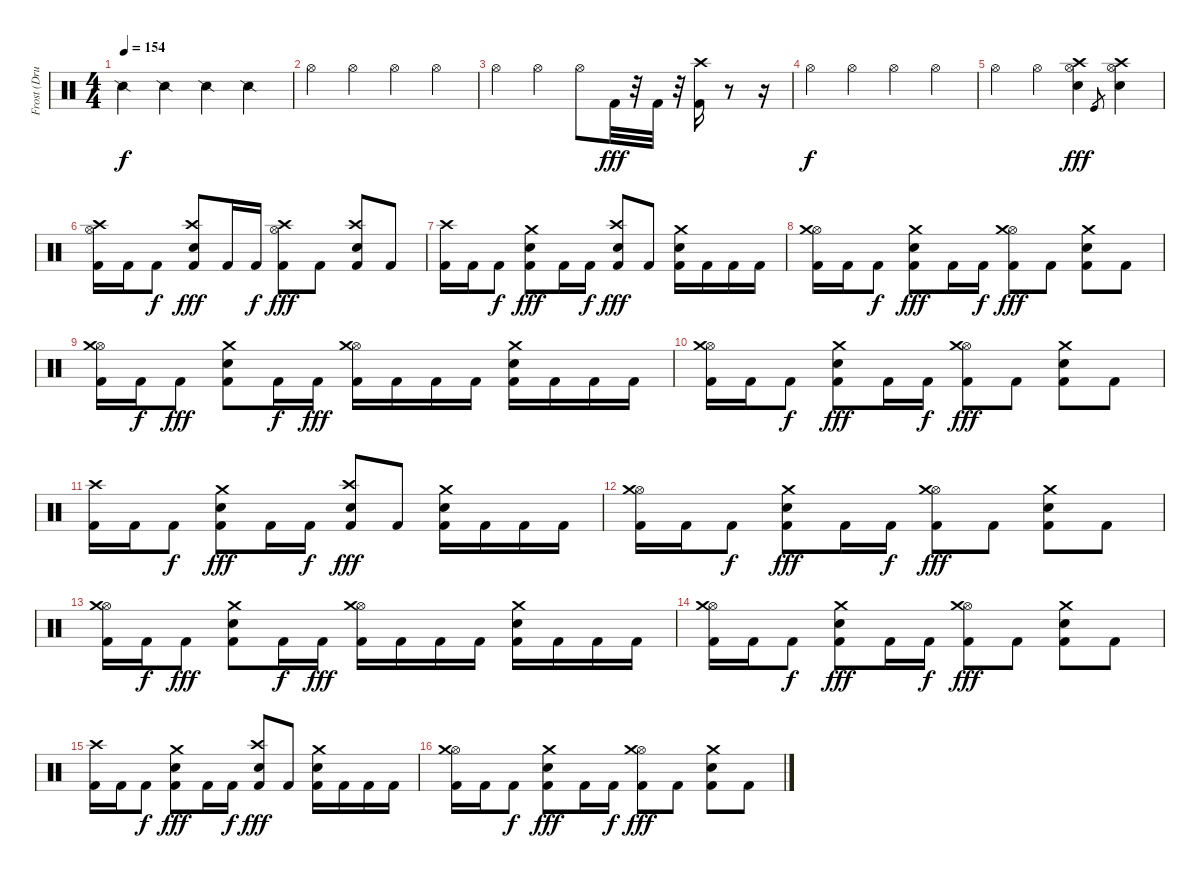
\track ("Frost (Drums)" "Frost (Dru") {instrument percussion}
\staff {score}
\articulation defaults
\ts (4 4)
\tempo 154
\clef neutral
\ks c "Snare (side stick) 2".4{dy f} "Snare (side stick) 2".4 "Snare (side stick) 2".4 "Snare (side stick) 2".4
|
"Hi-Hat (open)".4 "Hi-Hat (open)".4 "Hi-Hat (open)".4 "Hi-Hat (open)".4 |
"Hi-Hat (open)".4 "Hi-Hat (open)".4 "Hi-Hat (open)".8 "Kick (hit) 2".32{dy fff} r.32 "Kick (hit) 2".32 r.32 ("Crash high (hit)" "Kick (hit) 2").16 r.8 r.16 |
"Hi-Hat (open)".4{dy f} "Hi-Hat (open)".4 "Hi-Hat (open)".4 "Hi-Hat (open)".4 |
"Hi-Hat (open)".4 "Hi-Hat (open)".4 ("Crash high (hit)" "Snare (hit) 2" "Hi-Hat (open)").4{dy fff} "Kick (hit)"{h}.8{gr} ("Crash high (hit)" "Snare (hit) 2" "Hi-Hat (open)").4 |
("Kick (hit) 2" "Hi-Hat (open)" "Crash high (hit)").16 "Kick (hit) 2".16 "Kick (hit) 2".8{dy f} ("Kick (hit) 2" "Snare (hit) 2" "Crash high (hit)").8{dy fff} "Kick (hit) 2".16 "Kick (hit) 2".16{dy f} ("Kick (hit) 2" "Hi-Hat (open)" "Crash high (hit)").8{dy fff} "Kick (hit) 2".8 ("Kick (hit) 2" "Snare (hit) 2" "Crash high (hit)").8 "Kick (hit) 2".8 |
("Kick (hit) 2" "Crash high (hit)").16 "Kick (hit) 2".16 "Kick (hit) 2".8{dy f} ("Kick (hit) 2" "Snare (hit) 2" "Crash medium (hit)").8{dy fff} "Kick (hit) 2".16 "Kick (hit) 2".16{dy f} ("Kick (hit) 2" "Snare (hit) 2" "Crash high (hit)").8{dy fff} "Kick (hit) 2".8 ("Kick (hit) 2" "Snare (hit) 2" "Crash medium (hit)").16 "Kick (hit) 2".16 "Kick (hit) 2".16 "Kick (hit) 2".16 |
("Kick (hit) 2" "Hi-Hat (open)" "Crash medium (hit)").16 "Kick (hit) 2".16 "Kick (hit) 2".8{dy f} ("Kick (hit) 2" "Snare (hit) 2" "Crash medium (hit)").8{dy fff} "Kick (hit) 2".16 "Kick (hit) 2".16{dy f} ("Kick (hit) 2" "Hi-Hat (open)" "Crash medium (hit)").8{dy fff} "Kick (hit) 2".8 ("Kick (hit) 2" "Snare (hit) 2" "Crash medium (hit)").8 "Kick (hit) 2".8 |
("Kick (hit) 2" "Hi-Hat (open)" "Crash medium (hit)").16 "Kick (hit) 2".16{dy f} "Kick (hit) 2".8{dy fff} ("Kick (hit) 2" "Snare (hit) 2" "Crash medium (hit)").8 "Kick (hit) 2".16{dy f} "Kick (hit) 2".16{dy fff} ("Kick (hit) 2" "Hi-Hat (open)" "Crash medium (hit)").16 "Kick (hit) 2".16 "Kick (hit) 2".16 "Kick (hit) 2".16 ("Kick (hit) 2" "Snare (hit) 2" "Crash medium (hit)").16 "Kick (hit) 2".16 "Kick (hit) 2".16 "Kick (hit) 2".16 |
("Kick (hit) 2" "Hi-Hat (open)" "Crash medium (hit)").16 "Kick (hit) 2".16 "Kick (hit) 2".8{dy f} ("Kick (hit) 2" "Snare (hit) 2" "Crash medium (hit)").8{dy fff} "Kick (hit) 2".16 "Kick (hit) 2".16{dy f} ("Kick (hit) 2" "Hi-Hat (open)" "Crash medium (hit)").8{dy fff} "Kick (hit) 2".8 ("Kick (hit) 2" "Snare (hit) 2" "Crash medium (hit)").8 "Kick (hit) 2".8 |
("Kick (hit) 2" "Crash high (hit)").16 "Kick (hit) 2".16 "Kick (hit) 2".8{dy f} ("Kick (hit) 2" "Snare (hit) 2" "Crash medium (hit)").8{dy fff} "Kick (hit) 2".16 "Kick (hit) 2".16{dy f} ("Kick (hit) 2" "Snare (hit) 2" "Crash high (hit)").8{dy fff} "Kick (hit) 2".8 ("Kick (hit) 2" "Snare (hit) 2" "Crash medium (hit)").16 "Kick (hit) 2".16 "Kick (hit) 2".16 "Kick (hit) 2".16 |
("Kick (hit) 2" "Hi-Hat (open)" "Crash medium (hit)").16 "Kick (hit) 2".16 "Kick (hit) 2".8{dy f} ("Kick (hit) 2" "Snare (hit) 2" "Crash medium (hit)").8{dy fff} "Kick (hit) 2".16 "Kick (hit) 2".16{dy f} ("Kick (hit) 2" "Hi-Hat (open)" "Crash medium (hit)").8{dy fff} "Kick (hit) 2".8 ("Kick (hit) 2" "Snare (hit) 2" "Crash medium (hit)").8 "Kick (hit) 2".8 |
("Kick (hit) 2" "Hi-Hat (open)" "Crash medium (hit)").16 "Kick (hit) 2".16{dy f} "Kick (hit) 2".8{dy fff} ("Kick (hit) 2" "Snare (hit) 2" "Crash medium (hit)").8 "Kick (hit) 2".16{dy f} "Kick (hit) 2".16{dy fff} ("Kick (hit) 2" "Hi-Hat (open)" "Crash medium (hit)").16 "Kick (hit) 2".16 "Kick (hit) 2".16 "Kick (hit) 2".16 ("Kick (hit) 2" "Snare (hit) 2" "Crash medium (hit)").16 "Kick (hit) 2".16 "Kick (hit) 2".16 "Kick (hit) 2".16 |
("Kick (hit) 2" "Hi-Hat (open)" "Crash medium (hit)").16 "Kick (hit) 2".16 "Kick (hit) 2".8{dy f} ("Kick (hit) 2" "Snare (hit) 2" "Crash medium (hit)").8{dy fff} "Kick (hit) 2".16 "Kick (hit) 2".16{dy f} ("Kick (hit) 2" "Hi-Hat (open)" "Crash medium (hit)").8{dy fff} "Kick (hit) 2".8 ("Kick (hit) 2" "Snare (hit) 2" "Crash medium (hit)").8 "Kick (hit) 2".8 |
("Kick (hit) 2" "Crash high (hit)").16 "Kick (hit) 2".16 "Kick (hit) 2".8{dy f} ("Kick (hit) 2" "Snare (hit) 2" "Crash medium (hit)").8{dy fff} "Kick (hit) 2".16 "Kick (hit) 2".16{dy f} ("Kick (hit) 2" "Snare (hit) 2" "Crash high (hit)").8{dy fff} "Kick (hit) 2".8 ("Kick (hit) 2" "Snare (hit) 2" "Crash medium (hit)").16 "Kick (hit) 2".16 "Kick (hit) 2".16 "Kick (hit) 2".16 |
("Kick (hit) 2" "Hi-Hat (open)" "Crash medium (hit)").16 "Kick (hit) 2".16 "Kick (hit) 2".8{dy f} ("Kick (hit) 2" "Snare (hit) 2" "Crash medium (hit)").8{dy fff} "Kick (hit) 2".16 "Kick (hit) 2".16{dy f} ("Kick (hit) 2" "Hi-Hat (open)" "Crash medium (hit)").8{dy fff} "Kick (hit) 2".8 ("Kick (hit) 2" "Snare (hit) 2" "Crash medium (hit)").8 "Kick (hit) 2".8
